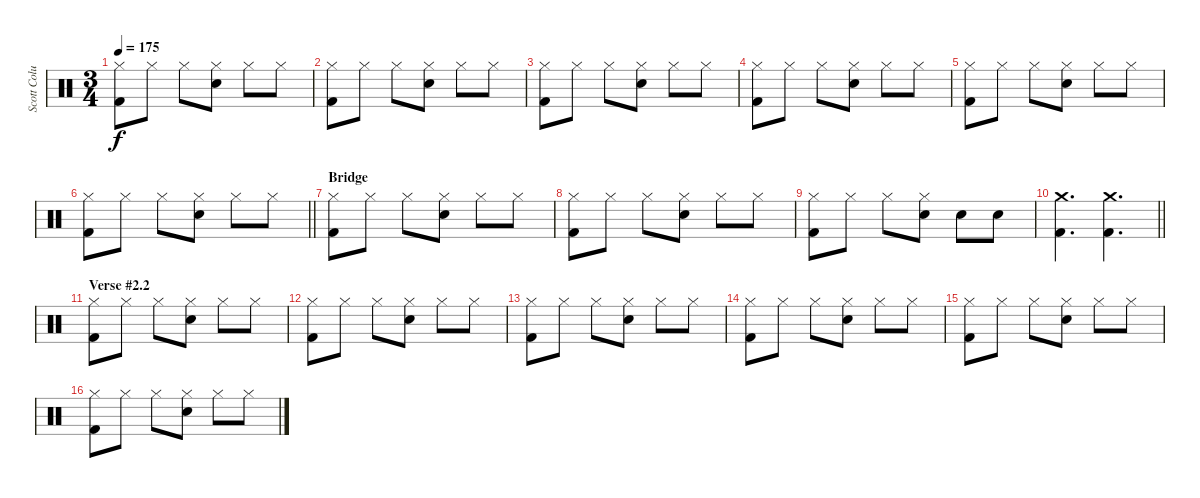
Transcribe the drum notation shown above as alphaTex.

\track ("Scott Columbus" "Scott Colu") {instrument percussion}
\staff {score}
\articulation defaults
\ts (3 4)
\tempo 175
\clef neutral
\ks c
("Kick (hit) 2" "Hi-Hat (closed)").8{dy f} "Hi-Hat (closed)".8 "Hi-Hat (closed)".8 ("Snare (hit) 2" "Hi-Hat (closed)").8 "Hi-Hat (closed)".8 "Hi-Hat (closed)".8 |
("Kick (hit) 2" "Hi-Hat (closed)").8 "Hi-Hat (closed)".8 "Hi-Hat (closed)".8 ("Snare (hit) 2" "Hi-Hat (closed)").8 "Hi-Hat (closed)".8 "Hi-Hat (closed)".8 |
("Kick (hit) 2" "Hi-Hat (closed)").8 "Hi-Hat (closed)".8 "Hi-Hat (closed)".8 ("Snare (hit) 2" "Hi-Hat (closed)").8 "Hi-Hat (closed)".8 "Hi-Hat (closed)".8 |
("Kick (hit) 2" "Hi-Hat (closed)").8 "Hi-Hat (closed)".8 "Hi-Hat (closed)".8 ("Snare (hit) 2" "Hi-Hat (closed)").8 "Hi-Hat (closed)".8 "Hi-Hat (closed)".8 |
("Kick (hit) 2" "Hi-Hat (closed)").8 "Hi-Hat (closed)".8 "Hi-Hat (closed)".8 ("Snare (hit) 2" "Hi-Hat (closed)").8 "Hi-Hat (closed)".8 "Hi-Hat (closed)".8 |
\barLineRight lightlight
("Kick (hit) 2" "Hi-Hat (closed)").8 "Hi-Hat (closed)".8 "Hi-Hat (closed)".8 ("Snare (hit) 2" "Hi-Hat (closed)").8 "Hi-Hat (closed)".8 "Hi-Hat (closed)".8 |
\section ("" "Bridge")
("Kick (hit) 2" "Hi-Hat (closed)").8 "Hi-Hat (closed)".8 "Hi-Hat (closed)".8 ("Snare (hit) 2" "Hi-Hat (closed)").8 "Hi-Hat (closed)".8 "Hi-Hat (closed)".8 |
("Kick (hit) 2" "Hi-Hat (closed)").8 "Hi-Hat (closed)".8 "Hi-Hat (closed)".8 ("Snare (hit) 2" "Hi-Hat (closed)").8 "Hi-Hat (closed)".8 "Hi-Hat (closed)".8 |
("Kick (hit) 2" "Hi-Hat (closed)").8 "Hi-Hat (closed)".8 "Hi-Hat (closed)".8 ("Snare (hit) 2" "Hi-Hat (closed)").8 "Snare (hit) 2".8 "Snare (hit) 2".8 |
\barLineRight lightlight
("Kick (hit) 2" "Crash medium (hit)").4{d} ("Kick (hit) 2" "Crash medium (hit)").4{d} |
\section ("" "Verse #2.2")
("Kick (hit) 2" "Hi-Hat (closed)").8 "Hi-Hat (closed)".8 "Hi-Hat (closed)".8 ("Snare (hit) 2" "Hi-Hat (closed)").8 "Hi-Hat (closed)".8 "Hi-Hat (closed)".8 |
("Kick (hit) 2" "Hi-Hat (closed)").8 "Hi-Hat (closed)".8 "Hi-Hat (closed)".8 ("Snare (hit) 2" "Hi-Hat (closed)").8 "Hi-Hat (closed)".8 "Hi-Hat (closed)".8 |
("Kick (hit) 2" "Hi-Hat (closed)").8 "Hi-Hat (closed)".8 "Hi-Hat (closed)".8 ("Snare (hit) 2" "Hi-Hat (closed)").8 "Hi-Hat (closed)".8 "Hi-Hat (closed)".8 |
("Kick (hit) 2" "Hi-Hat (closed)").8 "Hi-Hat (closed)".8 "Hi-Hat (closed)".8 ("Snare (hit) 2" "Hi-Hat (closed)").8 "Hi-Hat (closed)".8 "Hi-Hat (closed)".8 |
("Kick (hit) 2" "Hi-Hat (closed)").8 "Hi-Hat (closed)".8 "Hi-Hat (closed)".8 ("Snare (hit) 2" "Hi-Hat (closed)").8 "Hi-Hat (closed)".8 "Hi-Hat (closed)".8 |
("Kick (hit) 2" "Hi-Hat (closed)").8 "Hi-Hat (closed)".8 "Hi-Hat (closed)".8 ("Snare (hit) 2" "Hi-Hat (closed)").8 "Hi-Hat (closed)".8 "Hi-Hat (closed)".8
